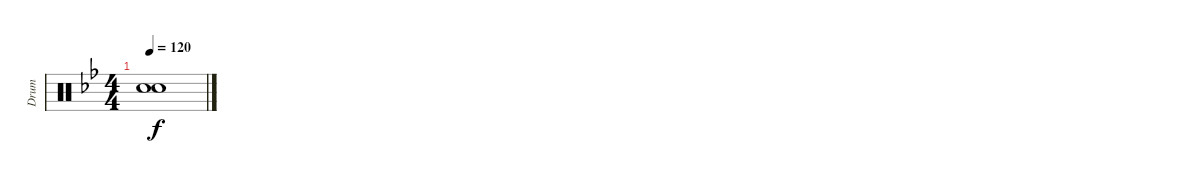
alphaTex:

\track ("Drum" "Drum") {instrument percussion}
\staff {score}
\articulation defaults
\ts (4 4)
\tempo 120
\clef neutral
\ks gminor
("Snare (hit)"{t} "Snare (hit)"{t}).1{dy f}
